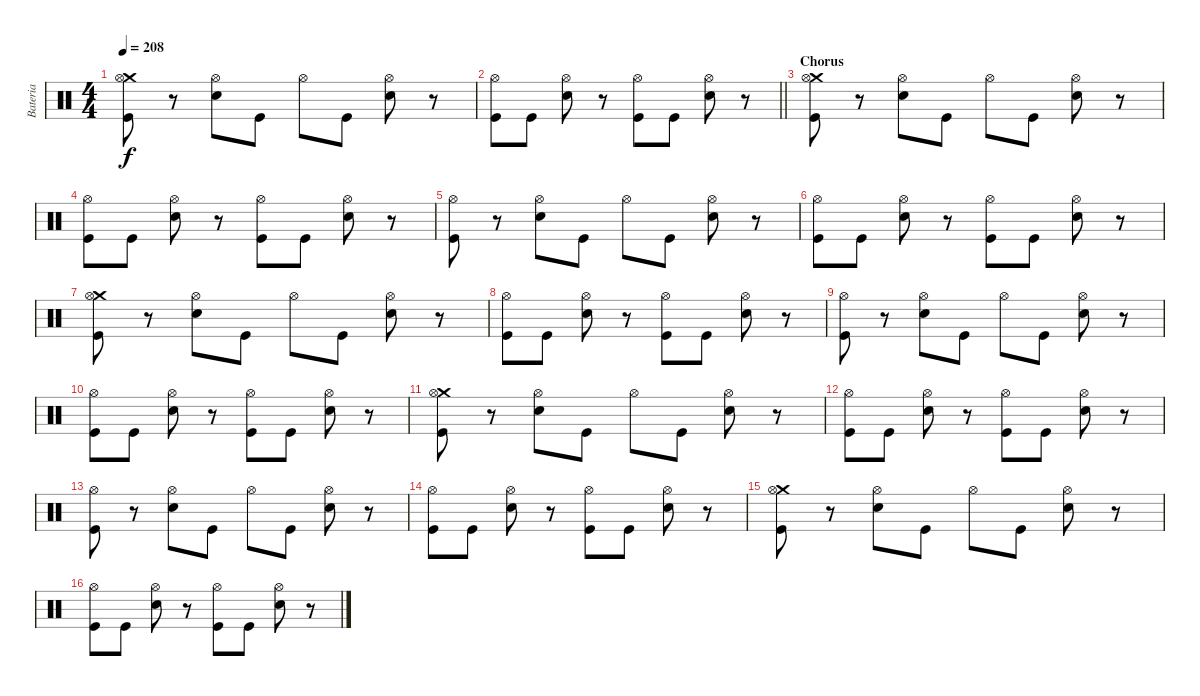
\track ("Bateria" "Bateria") {instrument percussion}
\staff {score}
\articulation defaults
\ts (4 4)
\tempo 208
\clef neutral
\ks c
("Crash medium (hit)" "Hi-Hat (open)" "Kick (hit)").8{dy f} r.8 ("Hi-Hat (open)" "Electric Snare (hit)").8 "Kick (hit)".8 "Hi-Hat (open)".8 "Kick (hit)".8 ("Hi-Hat (open)" "Electric Snare (hit)").8 r.8 |
\barLineRight lightlight
("Hi-Hat (open)" "Kick (hit)").8 "Kick (hit)".8 ("Hi-Hat (open)" "Electric Snare (hit)").8 r.8 ("Hi-Hat (open)" "Kick (hit)").8 "Kick (hit)".8 ("Hi-Hat (open)" "Electric Snare (hit)").8 r.8 |
\section ("" "Chorus")
("Crash medium (hit)" "Hi-Hat (open)" "Kick (hit)").8 r.8 ("Hi-Hat (open)" "Electric Snare (hit)").8 "Kick (hit)".8 "Hi-Hat (open)".8 "Kick (hit)".8 ("Hi-Hat (open)" "Electric Snare (hit)").8 r.8 |
("Hi-Hat (open)" "Kick (hit)").8 "Kick (hit)".8 ("Hi-Hat (open)" "Electric Snare (hit)").8 r.8 ("Hi-Hat (open)" "Kick (hit)").8 "Kick (hit)".8 ("Hi-Hat (open)" "Electric Snare (hit)").8 r.8 |
("Hi-Hat (open)" "Kick (hit)").8 r.8 ("Hi-Hat (open)" "Electric Snare (hit)").8 "Kick (hit)".8 "Hi-Hat (open)".8 "Kick (hit)".8 ("Hi-Hat (open)" "Electric Snare (hit)").8 r.8 |
("Hi-Hat (open)" "Kick (hit)").8 "Kick (hit)".8 ("Hi-Hat (open)" "Electric Snare (hit)").8 r.8 ("Hi-Hat (open)" "Kick (hit)").8 "Kick (hit)".8 ("Hi-Hat (open)" "Electric Snare (hit)").8 r.8 |
("Crash medium (hit)" "Hi-Hat (open)" "Kick (hit)").8 r.8 ("Hi-Hat (open)" "Electric Snare (hit)").8 "Kick (hit)".8 "Hi-Hat (open)".8 "Kick (hit)".8 ("Hi-Hat (open)" "Electric Snare (hit)").8 r.8 |
("Hi-Hat (open)" "Kick (hit)").8 "Kick (hit)".8 ("Hi-Hat (open)" "Electric Snare (hit)").8 r.8 ("Hi-Hat (open)" "Kick (hit)").8 "Kick (hit)".8 ("Hi-Hat (open)" "Electric Snare (hit)").8 r.8 |
("Hi-Hat (open)" "Kick (hit)").8 r.8 ("Hi-Hat (open)" "Electric Snare (hit)").8 "Kick (hit)".8 "Hi-Hat (open)".8 "Kick (hit)".8 ("Hi-Hat (open)" "Electric Snare (hit)").8 r.8 |
("Hi-Hat (open)" "Kick (hit)").8 "Kick (hit)".8 ("Hi-Hat (open)" "Electric Snare (hit)").8 r.8 ("Hi-Hat (open)" "Kick (hit)").8 "Kick (hit)".8 ("Hi-Hat (open)" "Electric Snare (hit)").8 r.8 |
("Crash medium (hit)" "Hi-Hat (open)" "Kick (hit)").8 r.8 ("Hi-Hat (open)" "Electric Snare (hit)").8 "Kick (hit)".8 "Hi-Hat (open)".8 "Kick (hit)".8 ("Hi-Hat (open)" "Electric Snare (hit)").8 r.8 |
("Hi-Hat (open)" "Kick (hit)").8 "Kick (hit)".8 ("Hi-Hat (open)" "Electric Snare (hit)").8 r.8 ("Hi-Hat (open)" "Kick (hit)").8 "Kick (hit)".8 ("Hi-Hat (open)" "Electric Snare (hit)").8 r.8 |
("Hi-Hat (open)" "Kick (hit)").8 r.8 ("Hi-Hat (open)" "Electric Snare (hit)").8 "Kick (hit)".8 "Hi-Hat (open)".8 "Kick (hit)".8 ("Hi-Hat (open)" "Electric Snare (hit)").8 r.8 |
("Hi-Hat (open)" "Kick (hit)").8 "Kick (hit)".8 ("Hi-Hat (open)" "Electric Snare (hit)").8 r.8 ("Hi-Hat (open)" "Kick (hit)").8 "Kick (hit)".8 ("Hi-Hat (open)" "Electric Snare (hit)").8 r.8 |
("Crash medium (hit)" "Hi-Hat (open)" "Kick (hit)").8 r.8 ("Hi-Hat (open)" "Electric Snare (hit)").8 "Kick (hit)".8 "Hi-Hat (open)".8 "Kick (hit)".8 ("Hi-Hat (open)" "Electric Snare (hit)").8 r.8 |
("Hi-Hat (open)" "Kick (hit)").8 "Kick (hit)".8 ("Hi-Hat (open)" "Electric Snare (hit)").8 r.8 ("Hi-Hat (open)" "Kick (hit)").8 "Kick (hit)".8 ("Hi-Hat (open)" "Electric Snare (hit)").8 r.8
